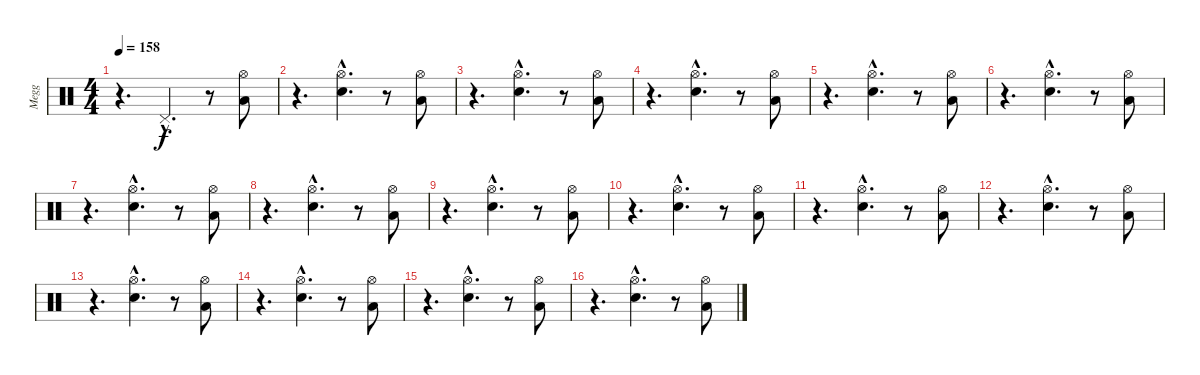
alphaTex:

\track ("Megg" "Megg") {instrument percussion}
\staff {score}
\articulation defaults
\ts (4 4)
\tempo 158
\clef neutral
\ks c
r.4{d dy f} "Pedal Hi-Hat (hit)"{hac}.4{d} r.8 ("Low Tom (hit)" "Hi-Hat (open)").8 |
r.4{d} ("Electric Snare (hit)"{hac} "Hi-Hat (open)"{hac}).4{d} r.8 ("Low Tom (hit)" "Hi-Hat (open)").8 |
r.4{d} ("Electric Snare (hit)"{hac} "Hi-Hat (open)"{hac}).4{d} r.8 ("Low Tom (hit)" "Hi-Hat (open)").8 |
r.4{d} ("Electric Snare (hit)"{hac} "Hi-Hat (open)"{hac}).4{d} r.8 ("Low Tom (hit)" "Hi-Hat (open)").8 |
r.4{d} ("Electric Snare (hit)"{hac} "Hi-Hat (open)"{hac}).4{d} r.8 ("Low Tom (hit)" "Hi-Hat (open)").8 |
r.4{d} ("Electric Snare (hit)"{hac} "Hi-Hat (open)"{hac}).4{d} r.8 ("Low Tom (hit)" "Hi-Hat (open)").8 |
r.4{d} ("Electric Snare (hit)"{hac} "Hi-Hat (open)"{hac}).4{d} r.8 ("Low Tom (hit)" "Hi-Hat (open)").8 |
r.4{d} ("Electric Snare (hit)"{hac} "Hi-Hat (open)"{hac}).4{d} r.8 ("Low Tom (hit)" "Hi-Hat (open)").8 |
r.4{d} ("Electric Snare (hit)"{hac} "Hi-Hat (open)"{hac}).4{d} r.8 ("Low Tom (hit)" "Hi-Hat (open)").8 |
r.4{d} ("Electric Snare (hit)"{hac} "Hi-Hat (open)"{hac}).4{d} r.8 ("Low Tom (hit)" "Hi-Hat (open)").8 |
r.4{d} ("Electric Snare (hit)"{hac} "Hi-Hat (open)"{hac}).4{d} r.8 ("Low Tom (hit)" "Hi-Hat (open)").8 |
r.4{d} ("Electric Snare (hit)"{hac} "Hi-Hat (open)"{hac}).4{d} r.8 ("Low Tom (hit)" "Hi-Hat (open)").8 |
r.4{d} ("Electric Snare (hit)"{hac} "Hi-Hat (open)"{hac}).4{d} r.8 ("Low Tom (hit)" "Hi-Hat (open)").8 |
r.4{d} ("Electric Snare (hit)"{hac} "Hi-Hat (open)"{hac}).4{d} r.8 ("Low Tom (hit)" "Hi-Hat (open)").8 |
r.4{d} ("Electric Snare (hit)"{hac} "Hi-Hat (open)"{hac}).4{d} r.8 ("Low Tom (hit)" "Hi-Hat (open)").8 |
r.4{d} ("Electric Snare (hit)"{hac} "Hi-Hat (open)"{hac}).4{d} r.8 ("Low Tom (hit)" "Hi-Hat (open)").8
